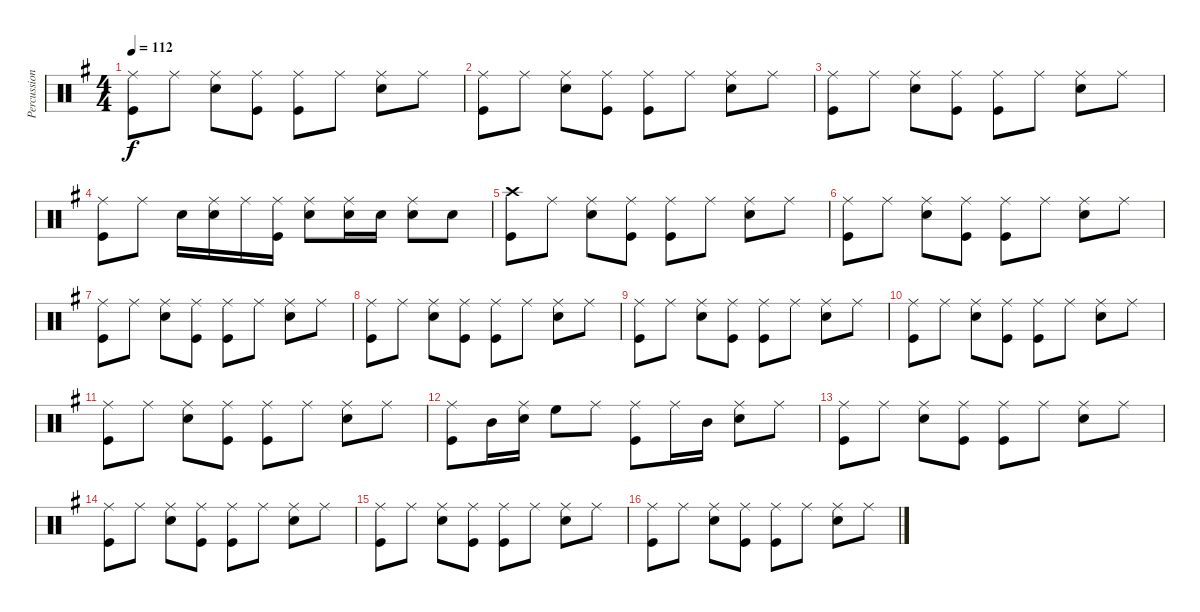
\track ("Percussion" "Percussion") {instrument percussion}
\staff {score}
\articulation defaults
\ts (4 4)
\tempo 112
\clef neutral
\ks g
("Ride (middle)" "Kick (hit)").8{dy f} "Ride (middle)".8 ("Ride (middle)" "Snare (hit) 2").8 ("Ride (middle)" "Kick (hit)").8 ("Ride (middle)" "Kick (hit)").8 "Ride (middle)".8 ("Ride (middle)" "Snare (hit) 2").8 "Ride (middle)".8 |
("Ride (middle)" "Kick (hit)").8 "Ride (middle)".8 ("Ride (middle)" "Snare (hit) 2").8 ("Ride (middle)" "Kick (hit)").8 ("Ride (middle)" "Kick (hit)").8 "Ride (middle)".8 ("Ride (middle)" "Snare (hit) 2").8 "Ride (middle)".8 |
("Ride (middle)" "Kick (hit)").8 "Ride (middle)".8 ("Ride (middle)" "Snare (hit) 2").8 ("Ride (middle)" "Kick (hit)").8 ("Ride (middle)" "Kick (hit)").8 "Ride (middle)".8 ("Ride (middle)" "Snare (hit) 2").8 "Ride (middle)".8 |
("Ride (middle)" "Kick (hit)").8 "Ride (middle)".8 "Snare (hit) 2".16 ("Ride (middle)" "Snare (hit) 2").16 "Ride (middle)".16 ("Ride (middle)" "Kick (hit)").16 ("Ride (middle)" "Snare (hit) 2").8 ("Ride (middle)" "Snare (hit) 2").16 "Snare (hit) 2".16 ("Ride (middle)" "Snare (hit) 2").8 "Snare (hit) 2".8 |
("Crash high (hit)" "Kick (hit)").8 "Ride (middle)".8 ("Ride (middle)" "Snare (hit) 2").8 ("Ride (middle)" "Kick (hit)").8 ("Ride (middle)" "Kick (hit)").8 "Ride (middle)".8 ("Ride (middle)" "Snare (hit) 2").8 "Ride (middle)".8 |
("Ride (middle)" "Kick (hit)").8 "Ride (middle)".8 ("Ride (middle)" "Snare (hit) 2").8 ("Ride (middle)" "Kick (hit)").8 ("Ride (middle)" "Kick (hit)").8 "Ride (middle)".8 ("Ride (middle)" "Snare (hit) 2").8 "Ride (middle)".8 |
("Ride (middle)" "Kick (hit)").8 "Ride (middle)".8 ("Ride (middle)" "Snare (hit) 2").8 ("Ride (middle)" "Kick (hit)").8 ("Ride (middle)" "Kick (hit)").8 "Ride (middle)".8 ("Ride (middle)" "Snare (hit) 2").8 "Ride (middle)".8 |
("Ride (middle)" "Kick (hit)").8 "Ride (middle)".8 ("Ride (middle)" "Snare (hit) 2").8 ("Ride (middle)" "Kick (hit)").8 ("Ride (middle)" "Kick (hit)").8 "Ride (middle)".8 ("Ride (middle)" "Snare (hit) 2").8 "Ride (middle)".8 |
("Ride (middle)" "Kick (hit)").8 "Ride (middle)".8 ("Ride (middle)" "Snare (hit) 2").8 ("Ride (middle)" "Kick (hit)").8 ("Ride (middle)" "Kick (hit)").8 "Ride (middle)".8 ("Ride (middle)" "Snare (hit) 2").8 "Ride (middle)".8 |
("Ride (middle)" "Kick (hit)").8 "Ride (middle)".8 ("Ride (middle)" "Snare (hit) 2").8 ("Ride (middle)" "Kick (hit)").8 ("Ride (middle)" "Kick (hit)").8 "Ride (middle)".8 ("Ride (middle)" "Snare (hit) 2").8 "Ride (middle)".8 |
("Ride (middle)" "Kick (hit)").8 "Ride (middle)".8 ("Ride (middle)" "Snare (hit) 2").8 ("Ride (middle)" "Kick (hit)").8 ("Ride (middle)" "Kick (hit)").8 "Ride (middle)".8 ("Ride (middle)" "Snare (hit) 2").8 "Ride (middle)".8 |
("Ride (middle)" "Kick (hit)").8 "Mid Tom (hit)".16 ("Ride (middle)" "Snare (hit) 2").16 "High Floor Tom (hit)".8 "Ride (middle)".8 ("Ride (middle)" "Kick (hit)").8 "Ride (middle)".16 "Mid Tom (hit)".16 ("Ride (middle)" "Snare (hit) 2").8 "Ride (middle)".8 |
("Ride (middle)" "Kick (hit)").8 "Ride (middle)".8 ("Ride (middle)" "Snare (hit) 2").8 ("Ride (middle)" "Kick (hit)").8 ("Ride (middle)" "Kick (hit)").8 "Ride (middle)".8 ("Ride (middle)" "Snare (hit) 2").8 "Ride (middle)".8 |
("Ride (middle)" "Kick (hit)").8 "Ride (middle)".8 ("Ride (middle)" "Snare (hit) 2").8 ("Ride (middle)" "Kick (hit)").8 ("Ride (middle)" "Kick (hit)").8 "Ride (middle)".8 ("Ride (middle)" "Snare (hit) 2").8 "Ride (middle)".8 |
("Ride (middle)" "Kick (hit)").8 "Ride (middle)".8 ("Ride (middle)" "Snare (hit) 2").8 ("Ride (middle)" "Kick (hit)").8 ("Ride (middle)" "Kick (hit)").8 "Ride (middle)".8 ("Ride (middle)" "Snare (hit) 2").8 "Ride (middle)".8 |
("Ride (middle)" "Kick (hit)").8 "Ride (middle)".8 ("Ride (middle)" "Snare (hit) 2").8 ("Ride (middle)" "Kick (hit)").8 ("Ride (middle)" "Kick (hit)").8 "Ride (middle)".8 ("Ride (middle)" "Snare (hit) 2").8 "Ride (middle)".8
